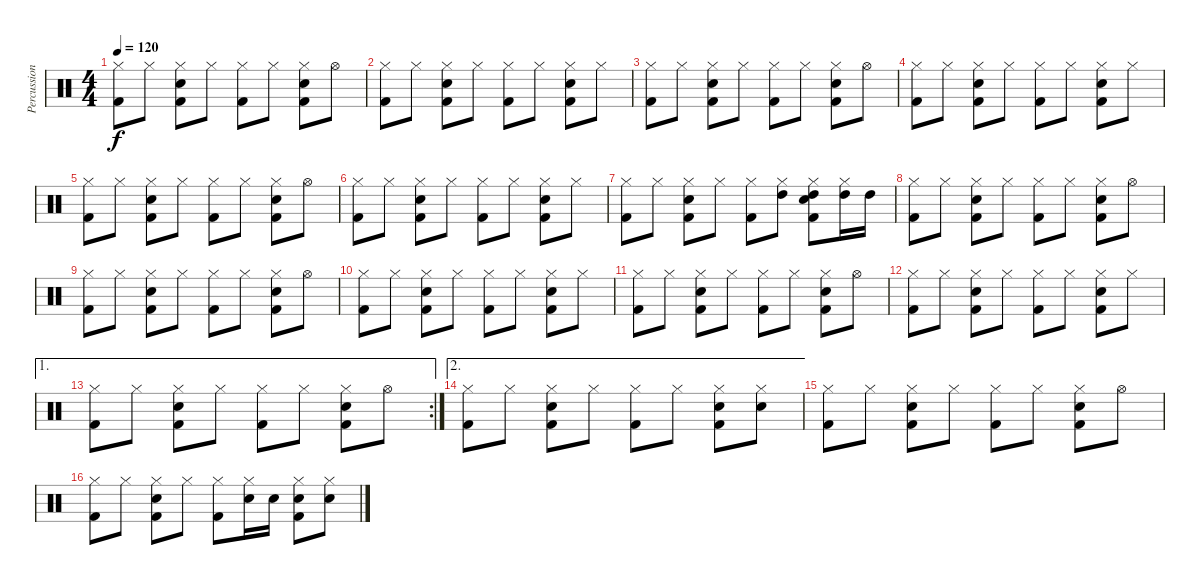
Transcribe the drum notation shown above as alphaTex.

\track ("Percussion" "Percussion") {instrument percussion}
\staff {score}
\articulation defaults
\ts (4 4)
\tempo 120
\clef neutral
\ks c
("Hi-Hat (closed)" "Kick (hit) 2").8{dy f} "Hi-Hat (closed)".8 ("Hi-Hat (closed)" "Kick (hit) 2" "Snare (hit) 2").8 "Hi-Hat (closed)".8 ("Hi-Hat (closed)" "Kick (hit) 2").8 "Hi-Hat (closed)".8 ("Hi-Hat (closed)" "Kick (hit) 2" "Snare (hit) 2").8 "Hi-Hat (open)".8 |
("Hi-Hat (closed)" "Kick (hit) 2").8 "Hi-Hat (closed)".8 ("Hi-Hat (closed)" "Kick (hit) 2" "Snare (hit) 2").8 "Hi-Hat (closed)".8 ("Hi-Hat (closed)" "Kick (hit) 2").8 "Hi-Hat (closed)".8 ("Hi-Hat (closed)" "Kick (hit) 2" "Snare (hit) 2").8 "Hi-Hat (closed)".8 |
("Hi-Hat (closed)" "Kick (hit) 2").8 "Hi-Hat (closed)".8 ("Hi-Hat (closed)" "Kick (hit) 2" "Snare (hit) 2").8 "Hi-Hat (closed)".8 ("Hi-Hat (closed)" "Kick (hit) 2").8 "Hi-Hat (closed)".8 ("Hi-Hat (closed)" "Kick (hit) 2" "Snare (hit) 2").8 "Hi-Hat (open)".8 |
("Hi-Hat (closed)" "Kick (hit) 2").8 "Hi-Hat (closed)".8 ("Hi-Hat (closed)" "Kick (hit) 2" "Snare (hit) 2").8 "Hi-Hat (closed)".8 ("Hi-Hat (closed)" "Kick (hit) 2").8 "Hi-Hat (closed)".8 ("Hi-Hat (closed)" "Kick (hit) 2" "Snare (hit) 2").8 "Hi-Hat (closed)".8 |
("Hi-Hat (closed)" "Kick (hit) 2").8 "Hi-Hat (closed)".8 ("Hi-Hat (closed)" "Kick (hit) 2" "Snare (hit) 2").8 "Hi-Hat (closed)".8 ("Hi-Hat (closed)" "Kick (hit) 2").8 "Hi-Hat (closed)".8 ("Hi-Hat (closed)" "Kick (hit) 2" "Snare (hit) 2").8 "Hi-Hat (open)".8 |
("Hi-Hat (closed)" "Kick (hit) 2").8 "Hi-Hat (closed)".8 ("Hi-Hat (closed)" "Kick (hit) 2" "Snare (hit) 2").8 "Hi-Hat (closed)".8 ("Hi-Hat (closed)" "Kick (hit) 2").8 "Hi-Hat (closed)".8 ("Hi-Hat (closed)" "Kick (hit) 2" "Snare (hit) 2").8 "Hi-Hat (closed)".8 |
("Hi-Hat (closed)" "Kick (hit) 2").8 "Hi-Hat (closed)".8 ("Hi-Hat (closed)" "Kick (hit) 2" "Snare (hit) 2").8 "Hi-Hat (closed)".8 ("Hi-Hat (closed)" "Kick (hit) 2").8 ("Hi-Hat (closed)" "High Tom (hit)").8 ("Hi-Hat (closed)" "Kick (hit) 2" "Snare (hit) 2" "High Tom (hit)").8 ("Hi-Hat (closed)" "High Tom (hit)").16 "High Tom (hit)".16 |
("Hi-Hat (closed)" "Kick (hit) 2").8 "Hi-Hat (closed)".8 ("Hi-Hat (closed)" "Kick (hit) 2" "Snare (hit) 2").8 "Hi-Hat (closed)".8 ("Hi-Hat (closed)" "Kick (hit) 2").8 "Hi-Hat (closed)".8 ("Hi-Hat (closed)" "Kick (hit) 2" "Snare (hit) 2").8 "Hi-Hat (open)".8 |
("Hi-Hat (closed)" "Kick (hit) 2").8 "Hi-Hat (closed)".8 ("Hi-Hat (closed)" "Kick (hit) 2" "Snare (hit) 2").8 "Hi-Hat (closed)".8 ("Hi-Hat (closed)" "Kick (hit) 2").8 "Hi-Hat (closed)".8 ("Hi-Hat (closed)" "Kick (hit) 2" "Snare (hit) 2").8 "Hi-Hat (open)".8 |
("Hi-Hat (closed)" "Kick (hit) 2").8 "Hi-Hat (closed)".8 ("Hi-Hat (closed)" "Kick (hit) 2" "Snare (hit) 2").8 "Hi-Hat (closed)".8 ("Hi-Hat (closed)" "Kick (hit) 2").8 "Hi-Hat (closed)".8 ("Hi-Hat (closed)" "Kick (hit) 2" "Snare (hit) 2").8 "Hi-Hat (closed)".8 |
("Hi-Hat (closed)" "Kick (hit) 2").8 "Hi-Hat (closed)".8 ("Hi-Hat (closed)" "Kick (hit) 2" "Snare (hit) 2").8 "Hi-Hat (closed)".8 ("Hi-Hat (closed)" "Kick (hit) 2").8 "Hi-Hat (closed)".8 ("Hi-Hat (closed)" "Kick (hit) 2" "Snare (hit) 2").8 "Hi-Hat (open)".8 |
("Hi-Hat (closed)" "Kick (hit) 2").8 "Hi-Hat (closed)".8 ("Hi-Hat (closed)" "Kick (hit) 2" "Snare (hit) 2").8 "Hi-Hat (closed)".8 ("Hi-Hat (closed)" "Kick (hit) 2").8 "Hi-Hat (closed)".8 ("Hi-Hat (closed)" "Kick (hit) 2" "Snare (hit) 2").8 "Hi-Hat (closed)".8 |
\ae 1
\rc 2
("Hi-Hat (closed)" "Kick (hit) 2").8 "Hi-Hat (closed)".8 ("Hi-Hat (closed)" "Kick (hit) 2" "Snare (hit) 2").8 "Hi-Hat (closed)".8 ("Hi-Hat (closed)" "Kick (hit) 2").8 "Hi-Hat (closed)".8 ("Hi-Hat (closed)" "Kick (hit) 2" "Snare (hit) 2").8 "Hi-Hat (open)".8 |
\ae 2
("Hi-Hat (closed)" "Kick (hit) 2").8 "Hi-Hat (closed)".8 ("Hi-Hat (closed)" "Kick (hit) 2" "Snare (hit) 2").8 "Hi-Hat (closed)".8 ("Hi-Hat (closed)" "Kick (hit) 2").8 "Hi-Hat (closed)".8 ("Hi-Hat (closed)" "Kick (hit) 2" "Snare (hit) 2").8 ("Hi-Hat (closed)" "Snare (hit) 2").8 |
("Hi-Hat (closed)" "Kick (hit) 2").8 "Hi-Hat (closed)".8 ("Hi-Hat (closed)" "Kick (hit) 2" "Snare (hit) 2").8 "Hi-Hat (closed)".8 ("Hi-Hat (closed)" "Kick (hit) 2").8 "Hi-Hat (closed)".8 ("Hi-Hat (closed)" "Kick (hit) 2" "Snare (hit) 2").8 "Hi-Hat (open)".8 |
("Hi-Hat (closed)" "Kick (hit) 2").8 "Hi-Hat (closed)".8 ("Hi-Hat (closed)" "Kick (hit) 2" "Snare (hit) 2").8 "Hi-Hat (closed)".8 ("Hi-Hat (closed)" "Kick (hit) 2").8 ("Hi-Hat (closed)" "Snare (hit) 2").16 "Snare (hit) 2".16 ("Hi-Hat (closed)" "Kick (hit) 2" "Snare (hit) 2").8 ("Hi-Hat (closed)" "Snare (hit) 2").8
